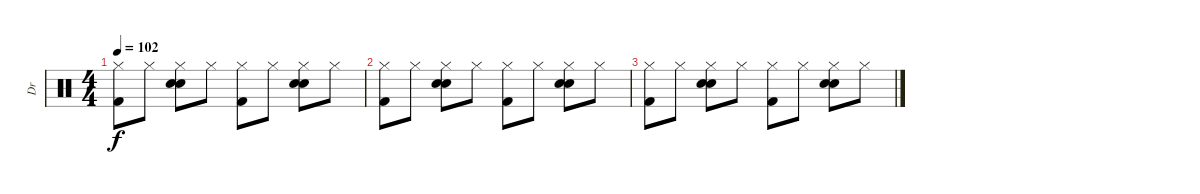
\track ("Dr" "Dr") {instrument percussion}
\staff {score}
\articulation defaults
\ts (4 4)
\tempo 102
\clef neutral
\ks c
("Hi-Hat (closed)" "Kick (hit) 2").8{dy f} "Hi-Hat (closed)".8 ("Hi-Hat (closed)" "Electric Snare (hit)" "Hand Clap (hit)").8 "Hi-Hat (closed)".8 ("Hi-Hat (closed)" "Kick (hit) 2").8 "Hi-Hat (closed)".8 ("Hi-Hat (closed)" "Electric Snare (hit)" "Hand Clap (hit)").8 "Hi-Hat (closed)".8 |
("Hi-Hat (closed)" "Kick (hit) 2").8 "Hi-Hat (closed)".8 ("Hi-Hat (closed)" "Electric Snare (hit)" "Hand Clap (hit)").8 "Hi-Hat (closed)".8 ("Hi-Hat (closed)" "Kick (hit) 2").8 "Hi-Hat (closed)".8 ("Hi-Hat (closed)" "Electric Snare (hit)" "Hand Clap (hit)").8 "Hi-Hat (closed)".8 |
("Hi-Hat (closed)" "Kick (hit) 2").8 "Hi-Hat (closed)".8 ("Hi-Hat (closed)" "Electric Snare (hit)" "Hand Clap (hit)").8 "Hi-Hat (closed)".8 ("Hi-Hat (closed)" "Kick (hit) 2").8 "Hi-Hat (closed)".8 ("Hi-Hat (closed)" "Electric Snare (hit)" "Hand Clap (hit)").8 "Hi-Hat (closed)".8
